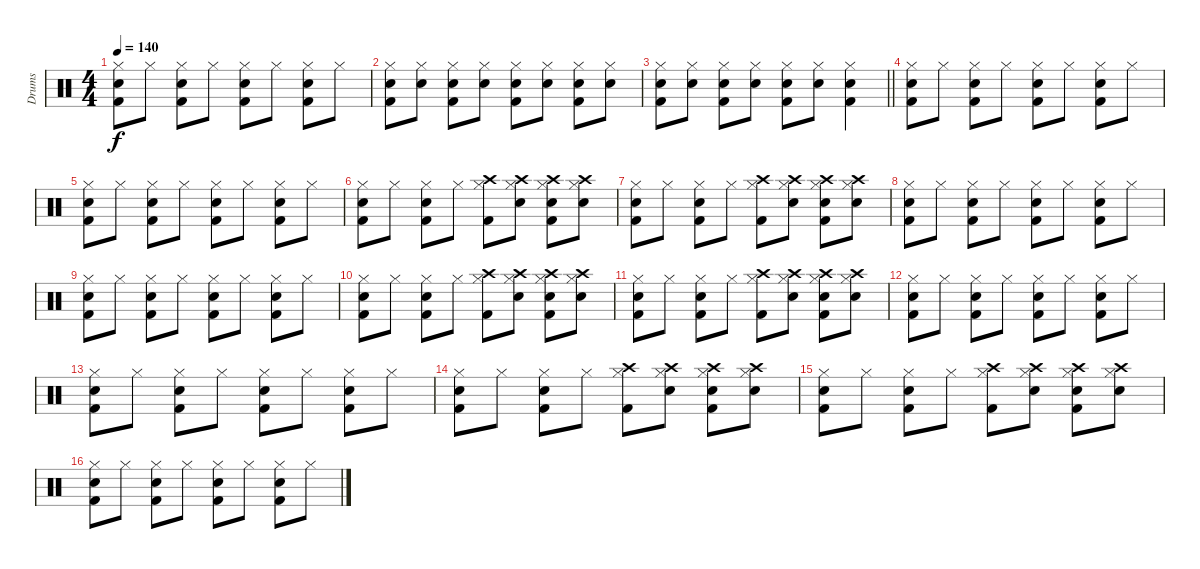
\track ("Drums" "Drums") {instrument percussion}
\staff {score}
\articulation defaults
\ts (4 4)
\tempo 140
\clef neutral
\ks c
("Hi-Hat (closed)" "Electric Snare (hit)" "Kick (hit) 2").8{dy f} "Hi-Hat (closed)".8 ("Hi-Hat (closed)" "Electric Snare (hit)" "Kick (hit) 2").8 "Hi-Hat (closed)".8 ("Hi-Hat (closed)" "Electric Snare (hit)" "Kick (hit) 2").8 "Hi-Hat (closed)".8 ("Hi-Hat (closed)" "Electric Snare (hit)" "Kick (hit) 2").8 "Hi-Hat (closed)".8 |
("Hi-Hat (closed)" "Electric Snare (hit)" "Kick (hit) 2").8 ("Hi-Hat (closed)" "Electric Snare (hit)").8 ("Hi-Hat (closed)" "Electric Snare (hit)" "Kick (hit) 2").8 ("Hi-Hat (closed)" "Electric Snare (hit)").8 ("Hi-Hat (closed)" "Electric Snare (hit)" "Kick (hit) 2").8 ("Hi-Hat (closed)" "Electric Snare (hit)").8 ("Hi-Hat (closed)" "Electric Snare (hit)" "Kick (hit) 2").8 ("Hi-Hat (closed)" "Electric Snare (hit)").8 |
\barLineRight lightlight
("Hi-Hat (closed)" "Electric Snare (hit)" "Kick (hit) 2").8 ("Hi-Hat (closed)" "Electric Snare (hit)").8 ("Hi-Hat (closed)" "Electric Snare (hit)" "Kick (hit) 2").8 ("Hi-Hat (closed)" "Electric Snare (hit)").8 ("Hi-Hat (closed)" "Electric Snare (hit)" "Kick (hit) 2").8 ("Hi-Hat (closed)" "Electric Snare (hit)").8 ("Hi-Hat (closed)" "Electric Snare (hit)" "Kick (hit) 2").4 |
("Hi-Hat (closed)" "Electric Snare (hit)" "Kick (hit) 2").8 "Hi-Hat (closed)".8 ("Hi-Hat (closed)" "Electric Snare (hit)" "Kick (hit) 2").8 "Hi-Hat (closed)".8 ("Hi-Hat (closed)" "Electric Snare (hit)" "Kick (hit) 2").8 "Hi-Hat (closed)".8 ("Hi-Hat (closed)" "Electric Snare (hit)" "Kick (hit) 2").8 "Hi-Hat (closed)".8 |
("Hi-Hat (closed)" "Electric Snare (hit)" "Kick (hit) 2").8 "Hi-Hat (closed)".8 ("Hi-Hat (closed)" "Electric Snare (hit)" "Kick (hit) 2").8 "Hi-Hat (closed)".8 ("Hi-Hat (closed)" "Electric Snare (hit)" "Kick (hit) 2").8 "Hi-Hat (closed)".8 ("Hi-Hat (closed)" "Electric Snare (hit)" "Kick (hit) 2").8 "Hi-Hat (closed)".8 |
("Hi-Hat (closed)" "Electric Snare (hit)" "Kick (hit) 2").8 "Hi-Hat (closed)".8 ("Hi-Hat (closed)" "Electric Snare (hit)" "Kick (hit) 2").8 "Hi-Hat (closed)".8 ("Hi-Hat (closed)" "Crash high (hit)" "Kick (hit) 2").8 ("Hi-Hat (closed)" "Crash high (hit)" "Electric Snare (hit)").8 ("Hi-Hat (closed)" "Crash high (hit)" "Electric Snare (hit)" "Kick (hit) 2").8 ("Hi-Hat (closed)" "Crash high (hit)" "Electric Snare (hit)").8 |
("Hi-Hat (closed)" "Electric Snare (hit)" "Kick (hit) 2").8 "Hi-Hat (closed)".8 ("Hi-Hat (closed)" "Electric Snare (hit)" "Kick (hit) 2").8 "Hi-Hat (closed)".8 ("Hi-Hat (closed)" "Crash high (hit)" "Kick (hit) 2").8 ("Hi-Hat (closed)" "Crash high (hit)" "Electric Snare (hit)").8 ("Hi-Hat (closed)" "Crash high (hit)" "Electric Snare (hit)" "Kick (hit) 2").8 ("Hi-Hat (closed)" "Crash high (hit)" "Electric Snare (hit)").8 |
("Hi-Hat (closed)" "Electric Snare (hit)" "Kick (hit) 2").8 "Hi-Hat (closed)".8 ("Hi-Hat (closed)" "Electric Snare (hit)" "Kick (hit) 2").8 "Hi-Hat (closed)".8 ("Hi-Hat (closed)" "Electric Snare (hit)" "Kick (hit) 2").8 "Hi-Hat (closed)".8 ("Hi-Hat (closed)" "Electric Snare (hit)" "Kick (hit) 2").8 "Hi-Hat (closed)".8 |
("Hi-Hat (closed)" "Electric Snare (hit)" "Kick (hit) 2").8 "Hi-Hat (closed)".8 ("Hi-Hat (closed)" "Electric Snare (hit)" "Kick (hit) 2").8 "Hi-Hat (closed)".8 ("Hi-Hat (closed)" "Electric Snare (hit)" "Kick (hit) 2").8 "Hi-Hat (closed)".8 ("Hi-Hat (closed)" "Electric Snare (hit)" "Kick (hit) 2").8 "Hi-Hat (closed)".8 |
("Hi-Hat (closed)" "Electric Snare (hit)" "Kick (hit) 2").8 "Hi-Hat (closed)".8 ("Hi-Hat (closed)" "Electric Snare (hit)" "Kick (hit) 2").8 "Hi-Hat (closed)".8 ("Hi-Hat (closed)" "Crash high (hit)" "Kick (hit) 2").8 ("Hi-Hat (closed)" "Crash high (hit)" "Electric Snare (hit)").8 ("Hi-Hat (closed)" "Crash high (hit)" "Electric Snare (hit)" "Kick (hit) 2").8 ("Hi-Hat (closed)" "Crash high (hit)" "Electric Snare (hit)").8 |
("Hi-Hat (closed)" "Electric Snare (hit)" "Kick (hit) 2").8 "Hi-Hat (closed)".8 ("Hi-Hat (closed)" "Electric Snare (hit)" "Kick (hit) 2").8 "Hi-Hat (closed)".8 ("Hi-Hat (closed)" "Crash high (hit)" "Kick (hit) 2").8 ("Hi-Hat (closed)" "Crash high (hit)" "Electric Snare (hit)").8 ("Hi-Hat (closed)" "Crash high (hit)" "Electric Snare (hit)" "Kick (hit) 2").8 ("Hi-Hat (closed)" "Crash high (hit)" "Electric Snare (hit)").8 |
("Hi-Hat (closed)" "Electric Snare (hit)" "Kick (hit) 2").8 "Hi-Hat (closed)".8 ("Hi-Hat (closed)" "Electric Snare (hit)" "Kick (hit) 2").8 "Hi-Hat (closed)".8 ("Hi-Hat (closed)" "Electric Snare (hit)" "Kick (hit) 2").8 "Hi-Hat (closed)".8 ("Hi-Hat (closed)" "Electric Snare (hit)" "Kick (hit) 2").8 "Hi-Hat (closed)".8 |
("Hi-Hat (closed)" "Electric Snare (hit)" "Kick (hit) 2").8 "Hi-Hat (closed)".8 ("Hi-Hat (closed)" "Electric Snare (hit)" "Kick (hit) 2").8 "Hi-Hat (closed)".8 ("Hi-Hat (closed)" "Electric Snare (hit)" "Kick (hit) 2").8 "Hi-Hat (closed)".8 ("Hi-Hat (closed)" "Electric Snare (hit)" "Kick (hit) 2").8 "Hi-Hat (closed)".8 |
("Hi-Hat (closed)" "Electric Snare (hit)" "Kick (hit) 2").8 "Hi-Hat (closed)".8 ("Hi-Hat (closed)" "Electric Snare (hit)" "Kick (hit) 2").8 "Hi-Hat (closed)".8 ("Hi-Hat (closed)" "Crash high (hit)" "Kick (hit) 2").8 ("Hi-Hat (closed)" "Crash high (hit)" "Electric Snare (hit)").8 ("Hi-Hat (closed)" "Crash high (hit)" "Electric Snare (hit)" "Kick (hit) 2").8 ("Hi-Hat (closed)" "Crash high (hit)" "Electric Snare (hit)").8 |
("Hi-Hat (closed)" "Electric Snare (hit)" "Kick (hit) 2").8 "Hi-Hat (closed)".8 ("Hi-Hat (closed)" "Electric Snare (hit)" "Kick (hit) 2").8 "Hi-Hat (closed)".8 ("Hi-Hat (closed)" "Crash high (hit)" "Kick (hit) 2").8 ("Hi-Hat (closed)" "Crash high (hit)" "Electric Snare (hit)").8 ("Hi-Hat (closed)" "Crash high (hit)" "Electric Snare (hit)" "Kick (hit) 2").8 ("Hi-Hat (closed)" "Crash high (hit)" "Electric Snare (hit)").8 |
("Hi-Hat (closed)" "Electric Snare (hit)" "Kick (hit) 2").8 "Hi-Hat (closed)".8 ("Hi-Hat (closed)" "Electric Snare (hit)" "Kick (hit) 2").8 "Hi-Hat (closed)".8 ("Hi-Hat (closed)" "Electric Snare (hit)" "Kick (hit) 2").8 "Hi-Hat (closed)".8 ("Hi-Hat (closed)" "Electric Snare (hit)" "Kick (hit) 2").8 "Hi-Hat (closed)".8
